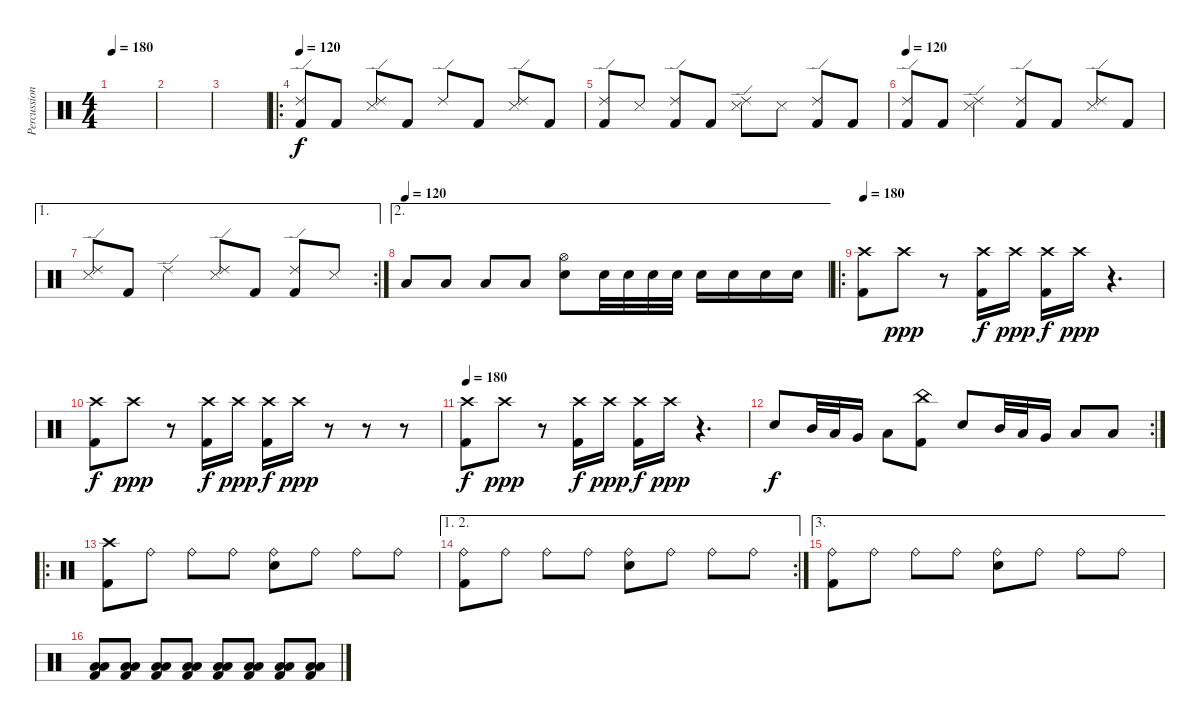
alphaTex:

\track ("Percussions" "Percussion") {instrument percussion}
\staff {score}
\articulation defaults
\ts (4 4)
\tempo 180
\clef neutral
\ks c
|
|
|
\ro
\tempo 120
("Ride (edge) 2" "Kick (hit) 2").8 "Kick (hit) 2".8 ("Ride (edge) 2" "Snare (side stick) 3").8 "Kick (hit) 2".8 "Ride (edge) 2".8 "Kick (hit) 2".8 ("Ride (edge) 2" "Snare (side stick) 3").8 "Kick (hit) 2".8 |
("Ride (edge) 2" "Kick (hit) 2").8 "Snare (side stick) 3".8 ("Ride (edge) 2" "Kick (hit) 2").8 "Kick (hit) 2".8 ("Ride (edge) 2" "Snare (side stick) 3").8 "Snare (side stick) 3".8 ("Ride (edge) 2" "Kick (hit) 2").8 "Kick (hit) 2".8 |
\tempo 120
("Ride (edge) 2" "Kick (hit) 2").8 "Kick (hit) 2".8 ("Ride (edge) 2" "Snare (side stick) 3").4 ("Ride (edge) 2" "Kick (hit) 2").8 "Kick (hit) 2".8 ("Ride (edge) 2" "Snare (side stick) 3").8 "Kick (hit) 2".8 |
\ae 1
\rc 2
("Ride (edge) 2" "Snare (side stick) 3").8 "Kick (hit) 2".8 "Ride (edge) 2".4 ("Ride (edge) 2" "Snare (side stick) 3").8 "Kick (hit) 2".8 ("Ride (edge) 2" "Kick (hit) 2").8 "Snare (side stick) 3".8 |
\ae 2
\tempo (120)
"Low Floor Tom (hit)".8 "Low Floor Tom (hit)".8 "Low Floor Tom (hit)".8 "Low Floor Tom (hit)".8 ("Hi-Hat (open)" "Snare (hit) 2").8 "Snare (hit) 2".32 "Snare (hit) 2".32 "Snare (hit) 2".32 "Snare (hit) 2".32 "Snare (hit) 2".16 "Snare (hit) 2".16 "Snare (hit) 2".16 "Snare (hit) 2".16 |
\ro
\tempo 180
("Crash high (hit)" "Kick (hit) 2").8 "Crash high (hit)".8{dy ppp} r.8 ("Crash high (hit)" "Kick (hit) 2").16{dy f} "Crash high (hit)".16{dy ppp} ("Crash high (hit)" "Kick (hit) 2").16{dy f} "Crash high (hit)".16{dy ppp} r.4{d} |
("Crash high (hit)" "Kick (hit) 2").8{dy f} "Crash high (hit)".8{dy ppp} r.8 ("Crash high (hit)" "Kick (hit) 2").16{dy f} "Crash high (hit)".16{dy ppp} ("Crash high (hit)" "Kick (hit) 2").16{dy f} "Crash high (hit)".16{dy ppp} r.8 r.8 r.8 |
\tempo 180
("Crash high (hit)" "Kick (hit) 2").8{dy f} "Crash high (hit)".8{dy ppp} r.8 ("Crash high (hit)" "Kick (hit) 2").16{dy f} "Crash high (hit)".16{dy ppp} ("Crash high (hit)" "Kick (hit) 2").16{dy f} "Crash high (hit)".16{dy ppp} r.4{d} |
\rc 2 "Snare (hit) 2".8{dy f} "Mid Tom (hit)".32 "Low Tom (hit)".32 "Very Low Tom (hit)".16 "Low Floor Tom (hit)".8
("China (hit)" "Kick (hit) 2").8 "Snare (hit) 2".8 "Mid Tom (hit)".32 "Low Tom (hit)".32 "Very Low Tom (hit)".16 "Low Floor Tom (hit)".8 "Low Floor Tom (hit)".8 |
\ro
("Crash high (hit)" "Kick (hit) 2").8 "Ride (bell)".8 "Ride (bell)".8 "Ride (bell)".8 ("Ride (bell)" "Snare (hit) 2").8 "Ride (bell)".8 "Ride (bell)".8 "Ride (bell)".8 |
\ae (1 2)
\rc 2
("Ride (bell)" "Kick (hit) 2").8 "Ride (bell)".8 "Ride (bell)".8 "Ride (bell)".8 ("Ride (bell)" "Snare (hit) 2").8 "Ride (bell)".8 "Ride (bell)".8 "Ride (bell)".8 |
\ae 3
("Ride (bell)" "Kick (hit) 2").8 "Ride (bell)".8 "Ride (bell)".8 "Ride (bell)".8 ("Ride (bell)" "Snare (hit) 2").8 "Ride (bell)".8 "Ride (bell)".8 "Ride (bell)".8 |
("Low Floor Tom (hit)" "Low Floor Tom (hit)" "Kick (hit) 2").8 ("Low Floor Tom (hit)" "Low Floor Tom (hit)" "Kick (hit) 2").8 ("Low Floor Tom (hit)" "Low Floor Tom (hit)" "Kick (hit) 2").8 ("Low Floor Tom (hit)" "Low Floor Tom (hit)" "Kick (hit) 2").8 ("Low Floor Tom (hit)" "Low Floor Tom (hit)" "Kick (hit) 2").8 ("Low Floor Tom (hit)" "Low Floor Tom (hit)" "Kick (hit) 2").8 ("Low Floor Tom (hit)" "Low Floor Tom (hit)" "Kick (hit) 2").8 ("Low Floor Tom (hit)" "Low Floor Tom (hit)" "Kick (hit) 2").8
